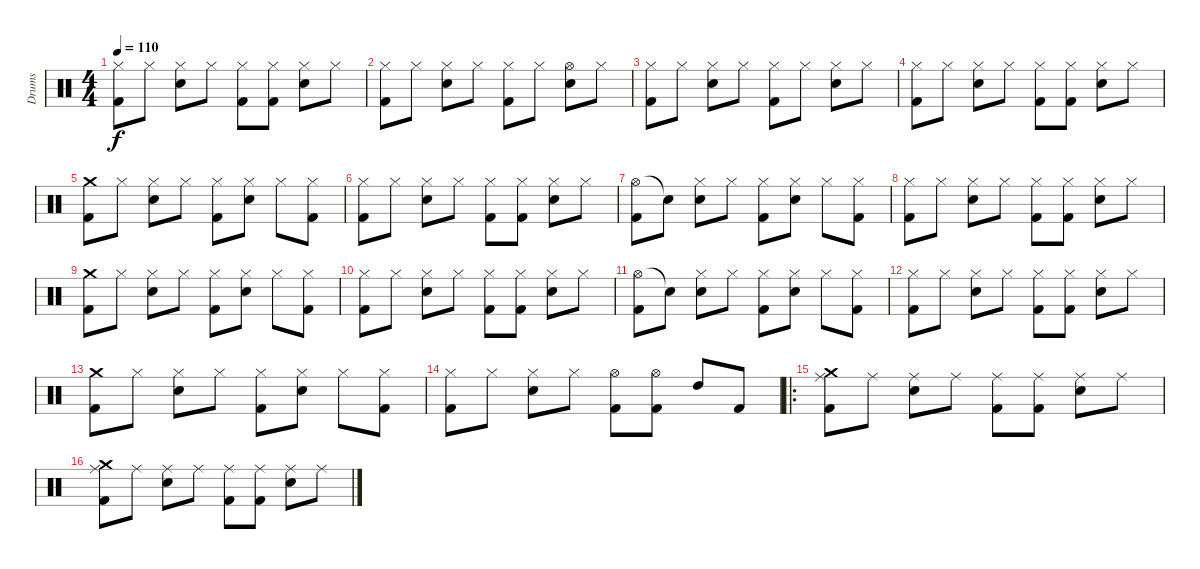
\track ("Drums" "Drums") {instrument percussion}
\staff {score}
\articulation defaults
\ts (4 4)
\tempo 110
\clef neutral
\ks aminor
("Hi-Hat (closed)" "Kick (hit) 2").8{dy f} "Hi-Hat (closed)".8 ("Hi-Hat (closed)" "Electric Snare (hit)").8 "Hi-Hat (closed)".8 ("Hi-Hat (closed)" "Kick (hit) 2").8 ("Hi-Hat (closed)" "Kick (hit) 2").8 ("Hi-Hat (closed)" "Electric Snare (hit)").8 "Hi-Hat (closed)".8 |
("Hi-Hat (closed)" "Kick (hit) 2").8 "Hi-Hat (closed)".8 ("Hi-Hat (closed)" "Electric Snare (hit)").8 "Hi-Hat (closed)".8 ("Hi-Hat (closed)" "Kick (hit) 2").8 "Hi-Hat (closed)".8 ("Hi-Hat (open)" "Electric Snare (hit)").8 "Hi-Hat (closed)".8 |
("Hi-Hat (closed)" "Kick (hit) 2").8 "Hi-Hat (closed)".8 ("Hi-Hat (closed)" "Electric Snare (hit)").8 "Hi-Hat (closed)".8 ("Hi-Hat (closed)" "Kick (hit) 2").8 "Hi-Hat (closed)".8 ("Hi-Hat (closed)" "Electric Snare (hit)").8 "Hi-Hat (closed)".8 |
("Hi-Hat (closed)" "Kick (hit) 2").8 "Hi-Hat (closed)".8 ("Hi-Hat (closed)" "Electric Snare (hit)").8 "Hi-Hat (closed)".8 ("Hi-Hat (closed)" "Kick (hit) 2").8 ("Hi-Hat (closed)" "Kick (hit) 2").8 ("Hi-Hat (closed)" "Electric Snare (hit)").8 "Hi-Hat (closed)".8 |
("Crash medium (hit)" "Kick (hit) 2").8 "Hi-Hat (closed)".8 ("Hi-Hat (closed)" "Electric Snare (hit)").8 "Hi-Hat (closed)".8 ("Hi-Hat (closed)" "Kick (hit) 2").8 ("Hi-Hat (closed)" "Electric Snare (hit)").8 "Hi-Hat (closed)".8 ("Hi-Hat (closed)" "Kick (hit) 2").8 |
("Hi-Hat (closed)" "Kick (hit) 2").8 "Hi-Hat (closed)".8 ("Hi-Hat (closed)" "Electric Snare (hit)").8 "Hi-Hat (closed)".8 ("Hi-Hat (closed)" "Kick (hit) 2").8 ("Hi-Hat (closed)" "Kick (hit) 2").8 ("Hi-Hat (closed)" "Electric Snare (hit)").8 "Hi-Hat (closed)".8 |
("Hi-Hat (open)" "Kick (hit) 2").8 "Snare (hit)"{t}.8 ("Hi-Hat (closed)" "Electric Snare (hit)").8 "Hi-Hat (closed)".8 ("Hi-Hat (closed)" "Kick (hit) 2").8 ("Hi-Hat (closed)" "Electric Snare (hit)").8 "Hi-Hat (closed)".8 ("Hi-Hat (closed)" "Kick (hit) 2").8 |
("Hi-Hat (closed)" "Kick (hit) 2").8 "Hi-Hat (closed)".8 ("Hi-Hat (closed)" "Electric Snare (hit)").8 "Hi-Hat (closed)".8 ("Hi-Hat (closed)" "Kick (hit) 2").8 ("Hi-Hat (closed)" "Kick (hit) 2").8 ("Hi-Hat (closed)" "Electric Snare (hit)").8 "Hi-Hat (closed)".8 |
("Crash medium (hit)" "Kick (hit) 2").8 "Hi-Hat (closed)".8 ("Hi-Hat (closed)" "Electric Snare (hit)").8 "Hi-Hat (closed)".8 ("Hi-Hat (closed)" "Kick (hit) 2").8 ("Hi-Hat (closed)" "Electric Snare (hit)").8 "Hi-Hat (closed)".8 ("Hi-Hat (closed)" "Kick (hit) 2").8 |
("Hi-Hat (closed)" "Kick (hit) 2").8 "Hi-Hat (closed)".8 ("Hi-Hat (closed)" "Electric Snare (hit)").8 "Hi-Hat (closed)".8 ("Hi-Hat (closed)" "Kick (hit) 2").8 ("Hi-Hat (closed)" "Kick (hit) 2").8 ("Hi-Hat (closed)" "Electric Snare (hit)").8 "Hi-Hat (closed)".8 |
("Hi-Hat (open)" "Kick (hit) 2").8 "Snare (hit)"{t}.8 ("Hi-Hat (closed)" "Electric Snare (hit)").8 "Hi-Hat (closed)".8 ("Hi-Hat (closed)" "Kick (hit) 2").8 ("Hi-Hat (closed)" "Electric Snare (hit)").8 "Hi-Hat (closed)".8 ("Hi-Hat (closed)" "Kick (hit) 2").8 |
("Hi-Hat (closed)" "Kick (hit) 2").8 "Hi-Hat (closed)".8 ("Hi-Hat (closed)" "Electric Snare (hit)").8 "Hi-Hat (closed)".8 ("Hi-Hat (closed)" "Kick (hit) 2").8 ("Hi-Hat (closed)" "Kick (hit) 2").8 ("Hi-Hat (closed)" "Electric Snare (hit)").8 "Hi-Hat (closed)".8 |
("Crash medium (hit)" "Kick (hit) 2").8 "Hi-Hat (closed)".8 ("Hi-Hat (closed)" "Electric Snare (hit)").8 "Hi-Hat (closed)".8 ("Hi-Hat (closed)" "Kick (hit) 2").8 ("Hi-Hat (closed)" "Electric Snare (hit)").8 "Hi-Hat (closed)".8 ("Hi-Hat (closed)" "Kick (hit) 2").8 |
("Hi-Hat (closed)" "Kick (hit) 2").8 "Hi-Hat (closed)".8 ("Hi-Hat (closed)" "Electric Snare (hit)").8 "Hi-Hat (closed)".8 ("Hi-Hat (open)" "Kick (hit) 2").8 ("Hi-Hat (open)" "Kick (hit) 2").8 "High Tom (hit)".8 "Kick (hit) 2".8 |
\ro
("Crash medium (hit)" "Ride (middle)" "Kick (hit) 2").8 "Ride (middle)".8 ("Ride (middle)" "Electric Snare (hit)").8 "Ride (middle)".8 ("Ride (middle)" "Kick (hit) 2").8 ("Ride (middle)" "Kick (hit) 2").8 ("Ride (middle)" "Electric Snare (hit)").8 "Ride (middle)".8 |
("Crash medium (hit)" "Ride (middle)" "Kick (hit) 2").8 "Ride (middle)".8 ("Ride (middle)" "Electric Snare (hit)").8 "Ride (middle)".8 ("Ride (middle)" "Kick (hit) 2").8 ("Ride (middle)" "Kick (hit) 2").8 ("Ride (middle)" "Electric Snare (hit)").8 "Ride (middle)".8
